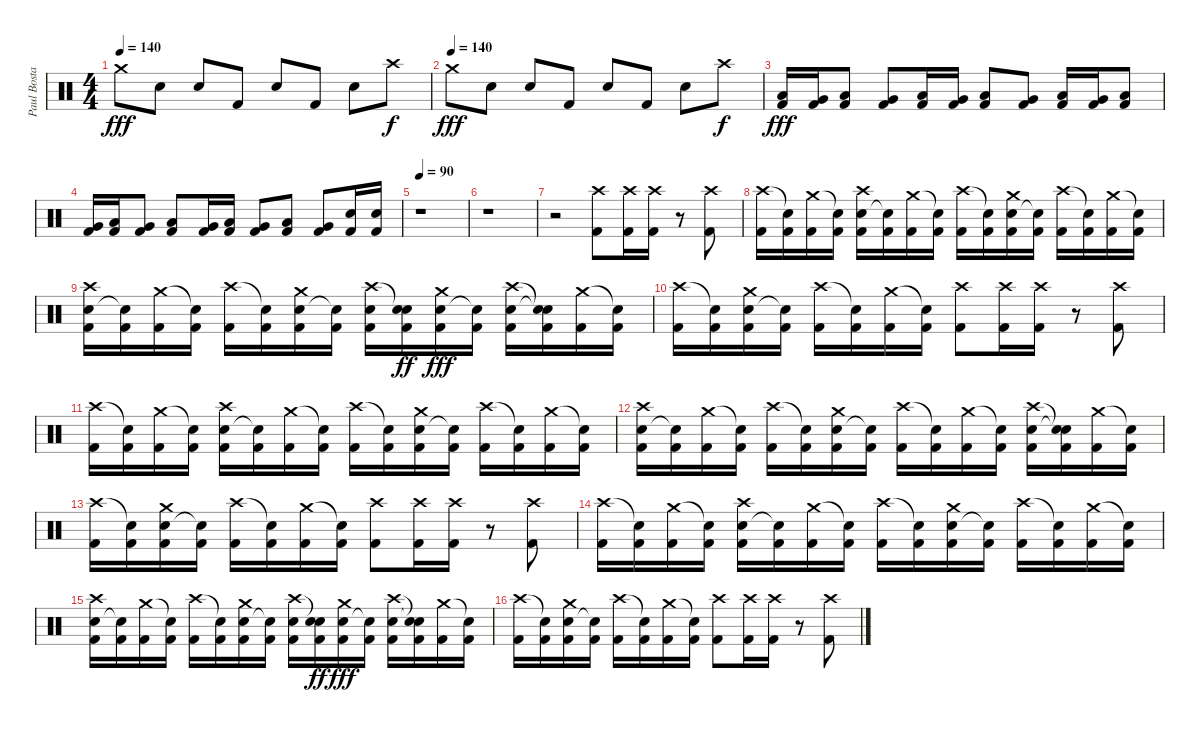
\track ("Paul Bostaph" "Paul Bosta") {instrument percussion}
\staff {score}
\articulation defaults
\ts (4 4)
\tempo 140
\clef neutral
\ks c "Crash medium (hit)".8{dy fff} "Snare (hit) 2".8 "Snare (hit) 2".8 "Kick (hit) 2".8 "Snare (hit) 2".8 "Kick (hit) 2".8 "Snare (hit) 2".8 "Crash high (hit)".8{dy f}
|
\tempo (140)
"Crash medium (hit)".8{dy fff} "Snare (hit) 2".8 "Snare (hit) 2".8 "Kick (hit) 2".8 "Snare (hit) 2".8 "Kick (hit) 2".8 "Snare (hit) 2".8 "Crash high (hit)".8{dy f} |
("Kick (hit) 2" "Low Floor Tom (hit)").16{dy fff} ("Kick (hit) 2" "Very Low Tom (hit)").16 ("Kick (hit) 2" "Low Floor Tom (hit)").8 ("Kick (hit) 2" "Very Low Tom (hit)").8 ("Kick (hit) 2" "Low Floor Tom (hit)").16 ("Kick (hit) 2" "Very Low Tom (hit)").16 ("Kick (hit) 2" "Low Floor Tom (hit)").8 ("Kick (hit) 2" "Very Low Tom (hit)").8 ("Kick (hit) 2" "Low Floor Tom (hit)").16 ("Kick (hit) 2" "Very Low Tom (hit)").16 ("Kick (hit) 2" "Low Floor Tom (hit)").8 |
("Kick (hit) 2" "Very Low Tom (hit)").16 ("Kick (hit) 2" "Low Floor Tom (hit)").16 ("Kick (hit) 2" "Very Low Tom (hit)").8 ("Kick (hit) 2" "Low Floor Tom (hit)").8 ("Kick (hit) 2" "Very Low Tom (hit)").16 ("Kick (hit) 2" "Low Floor Tom (hit)").16 ("Kick (hit) 2" "Very Low Tom (hit)").8 ("Kick (hit) 2" "Low Floor Tom (hit)").8 ("Kick (hit) 2" "Very Low Tom (hit)").8 ("Kick (hit) 2" "Snare (hit) 2").16 ("Kick (hit) 2" "Snare (hit) 2").16 |
\tempo 90
r.1 |
r.1 |
r.2 ("Kick (hit) 2" "Crash high (hit)").8 ("Kick (hit) 2" "Crash high (hit)").16 ("Kick (hit) 2" "Crash high (hit)").16 r.8 ("Kick (hit) 2" "Crash high (hit)").8 |
("Kick (hit) 2" "Crash high (hit)").16 ("Kick (hit) 2" "Snare (hit)"{t}).16 ("Kick (hit) 2" "Crash medium (hit)").16 ("Kick (hit) 2" "Snare (hit)"{t}).16 ("Kick (hit) 2" "Snare (hit) 2" "Crash high (hit)").16 ("Kick (hit) 2" "Snare (hit)"{t}).16 ("Kick (hit) 2" "Crash medium (hit)").16 ("Kick (hit) 2" "Snare (hit)"{t}).16 ("Kick (hit) 2" "Crash high (hit)").16 ("Kick (hit) 2" "Snare (hit)"{t}).16 ("Kick (hit) 2" "Snare (hit) 2" "Crash medium (hit)").16 ("Kick (hit) 2" "Snare (hit)"{t}).16 ("Kick (hit) 2" "Crash high (hit)").16 ("Kick (hit) 2" "Snare (hit)"{t}).16 ("Kick (hit) 2" "Crash medium (hit)").16 ("Kick (hit) 2" "Snare (hit)"{t}).16 |
("Kick (hit) 2" "Snare (hit) 2" "Crash high (hit)").16 ("Kick (hit) 2" "Snare (hit)"{t}).16 ("Kick (hit) 2" "Crash medium (hit)").16 ("Kick (hit) 2" "Snare (hit)"{t}).16 ("Kick (hit) 2" "Crash high (hit)").16 ("Kick (hit) 2" "Snare (hit)"{t}).16 ("Kick (hit) 2" "Snare (hit) 2" "Crash medium (hit)").16 ("Kick (hit) 2" "Snare (hit)"{t}).16 ("Kick (hit) 2" "Snare (hit) 2" "Crash high (hit)").16 ("Kick (hit) 2" "Snare (hit) 2" "Snare (hit)"{t}).16{dy ff} ("Kick (hit) 2" "Snare (hit) 2" "Crash medium (hit)").16{dy fff} ("Kick (hit) 2" "Snare (hit)"{t}).16 ("Kick (hit) 2" "Snare (hit) 2" "Crash high (hit)").16 ("Kick (hit) 2" "Snare (hit)"{t} "Snare (hit)"{t}).16 ("Kick (hit) 2" "Crash medium (hit)").16 ("Kick (hit) 2" "Snare (hit)"{t}).16 |
("Kick (hit) 2" "Crash high (hit)").16 ("Kick (hit) 2" "Snare (hit)"{t}).16 ("Kick (hit) 2" "Snare (hit) 2" "Crash medium (hit)").16 ("Kick (hit) 2" "Snare (hit)"{t}).16 ("Kick (hit) 2" "Crash high (hit)").16 ("Kick (hit) 2" "Snare (hit)"{t}).16 ("Kick (hit) 2" "Crash medium (hit)").16 ("Kick (hit) 2" "Snare (hit)"{t}).16 ("Kick (hit) 2" "Crash high (hit)").8 ("Kick (hit) 2" "Crash high (hit)").16 ("Kick (hit) 2" "Crash high (hit)").16 r.8 ("Kick (hit) 2" "Crash high (hit)").8 |
("Kick (hit) 2" "Crash high (hit)").16 ("Kick (hit) 2" "Snare (hit)"{t}).16 ("Kick (hit) 2" "Crash medium (hit)").16 ("Kick (hit) 2" "Snare (hit)"{t}).16 ("Kick (hit) 2" "Snare (hit) 2" "Crash high (hit)").16 ("Kick (hit) 2" "Snare (hit)"{t}).16 ("Kick (hit) 2" "Crash medium (hit)").16 ("Kick (hit) 2" "Snare (hit)"{t}).16 ("Kick (hit) 2" "Crash high (hit)").16 ("Kick (hit) 2" "Snare (hit)"{t}).16 ("Kick (hit) 2" "Snare (hit) 2" "Crash medium (hit)").16 ("Kick (hit) 2" "Snare (hit)"{t}).16 ("Kick (hit) 2" "Crash high (hit)").16 ("Kick (hit) 2" "Snare (hit)"{t}).16 ("Kick (hit) 2" "Crash medium (hit)").16 ("Kick (hit) 2" "Snare (hit)"{t}).16 |
("Kick (hit) 2" "Snare (hit) 2" "Crash high (hit)").16 ("Kick (hit) 2" "Snare (hit)"{t}).16 ("Kick (hit) 2" "Crash medium (hit)").16 ("Kick (hit) 2" "Snare (hit)"{t}).16 ("Kick (hit) 2" "Crash high (hit)").16 ("Kick (hit) 2" "Snare (hit)"{t}).16 ("Kick (hit) 2" "Snare (hit) 2" "Crash medium (hit)").16 ("Kick (hit) 2" "Snare (hit)"{t}).16 ("Kick (hit) 2" "Crash high (hit)").16 ("Kick (hit) 2" "Snare (hit)"{t}).16 ("Kick (hit) 2" "Crash medium (hit)").16 ("Kick (hit) 2" "Snare (hit)"{t}).16 ("Kick (hit) 2" "Snare (hit) 2" "Crash high (hit)").16 ("Kick (hit) 2" "Snare (hit)"{t} "Snare (hit)"{t}).16 ("Kick (hit) 2" "Crash medium (hit)").16 ("Kick (hit) 2" "Snare (hit)"{t}).16 |
("Kick (hit) 2" "Crash high (hit)").16 ("Kick (hit) 2" "Snare (hit)"{t}).16 ("Kick (hit) 2" "Snare (hit) 2" "Crash medium (hit)").16 ("Kick (hit) 2" "Snare (hit)"{t}).16 ("Kick (hit) 2" "Crash high (hit)").16 ("Kick (hit) 2" "Snare (hit)"{t}).16 ("Kick (hit) 2" "Crash medium (hit)").16 ("Kick (hit) 2" "Snare (hit)"{t}).16 ("Kick (hit) 2" "Crash high (hit)").8 ("Kick (hit) 2" "Crash high (hit)").16 ("Kick (hit) 2" "Crash high (hit)").16 r.8 ("Kick (hit) 2" "Crash high (hit)").8 |
("Kick (hit) 2" "Crash high (hit)").16 ("Kick (hit) 2" "Snare (hit)"{t}).16 ("Kick (hit) 2" "Crash medium (hit)").16 ("Kick (hit) 2" "Snare (hit)"{t}).16 ("Kick (hit) 2" "Snare (hit) 2" "Crash high (hit)").16 ("Kick (hit) 2" "Snare (hit)"{t}).16 ("Kick (hit) 2" "Crash medium (hit)").16 ("Kick (hit) 2" "Snare (hit)"{t}).16 ("Kick (hit) 2" "Crash high (hit)").16 ("Kick (hit) 2" "Snare (hit)"{t}).16 ("Kick (hit) 2" "Snare (hit) 2" "Crash medium (hit)").16 ("Kick (hit) 2" "Snare (hit)"{t}).16 ("Kick (hit) 2" "Crash high (hit)").16 ("Kick (hit) 2" "Snare (hit)"{t}).16 ("Kick (hit) 2" "Crash medium (hit)").16 ("Kick (hit) 2" "Snare (hit)"{t}).16 |
("Kick (hit) 2" "Snare (hit) 2" "Crash high (hit)").16 ("Kick (hit) 2" "Snare (hit)"{t}).16 ("Kick (hit) 2" "Crash medium (hit)").16 ("Kick (hit) 2" "Snare (hit)"{t}).16 ("Kick (hit) 2" "Crash high (hit)").16 ("Kick (hit) 2" "Snare (hit)"{t}).16 ("Kick (hit) 2" "Snare (hit) 2" "Crash medium (hit)").16 ("Kick (hit) 2" "Snare (hit)"{t}).16 ("Kick (hit) 2" "Snare (hit) 2" "Crash high (hit)").16 ("Kick (hit) 2" "Snare (hit) 2" "Snare (hit)"{t}).16{dy ff} ("Kick (hit) 2" "Snare (hit) 2" "Crash medium (hit)").16{dy fff} ("Kick (hit) 2" "Snare (hit)"{t}).16 ("Kick (hit) 2" "Snare (hit) 2" "Crash high (hit)").16 ("Kick (hit) 2" "Snare (hit)"{t} "Snare (hit)"{t}).16 ("Kick (hit) 2" "Crash medium (hit)").16 ("Kick (hit) 2" "Snare (hit)"{t}).16 |
("Kick (hit) 2" "Crash high (hit)").16 ("Kick (hit) 2" "Snare (hit)"{t}).16 ("Kick (hit) 2" "Snare (hit) 2" "Crash medium (hit)").16 ("Kick (hit) 2" "Snare (hit)"{t}).16 ("Kick (hit) 2" "Crash high (hit)").16 ("Kick (hit) 2" "Snare (hit)"{t}).16 ("Kick (hit) 2" "Crash medium (hit)").16 ("Kick (hit) 2" "Snare (hit)"{t}).16 ("Kick (hit) 2" "Crash high (hit)").8 ("Kick (hit) 2" "Crash high (hit)").16 ("Kick (hit) 2" "Crash high (hit)").16 r.8 ("Kick (hit) 2" "Crash high (hit)").8
